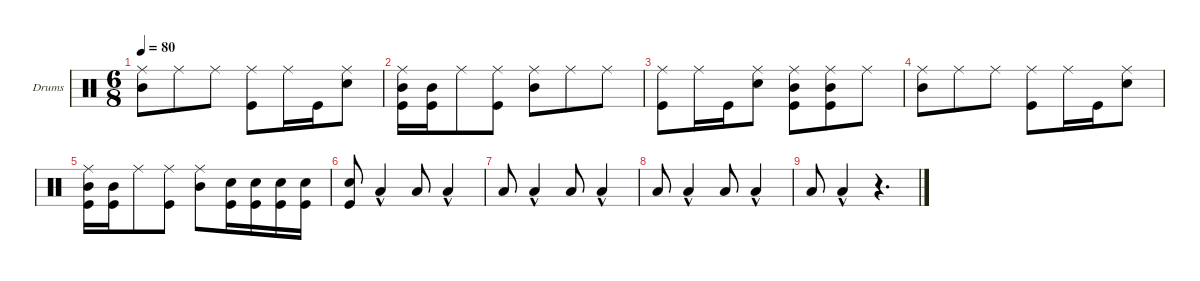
\defaultSystemsLayout 4
\hideDynamics
\bracketExtendMode groupsimilarinstruments
\firstSystemTrackNameOrientation horizontal
\otherSystemsTrackNameOrientation horizontal
\track ("Drumkit" "Drums") {instrument percussion}
\staff {score}
\articulation defaults
\ts (6 8)
\tempo 80
\clef neutral
\ks c
("Ride (middle)" "Mid Tom (hit)").8{dy mf} "Ride (middle)".8 "Ride (middle)".8 ("Ride (middle)" "Kick (hit)").8 "Ride (middle)".16 "Kick (hit)".16 ("Ride (middle)" "Snare (hit) 2").8 |
("Ride (middle)" "Mid Tom (hit)" "Kick (hit)").16 ("Mid Tom (hit)" "Kick (hit)").16 "Ride (middle)".8 ("Ride (middle)" "Kick (hit)").8 ("Ride (middle)" "Mid Tom (hit)").8 "Ride (middle)".8 "Ride (middle)".8 |
("Ride (middle)" "Kick (hit)").8 "Ride (middle)".16 "Kick (hit)".16 ("Ride (middle)" "Snare (hit) 2").8 ("Ride (middle)" "Mid Tom (hit)" "Kick (hit)").8 ("Ride (middle)" "Kick (hit)" "Mid Tom (hit)").8 "Ride (middle)".8 |
("Ride (middle)" "Mid Tom (hit)").8 "Ride (middle)".8 "Ride (middle)".8 ("Ride (middle)" "Kick (hit)").8 "Ride (middle)".16 "Kick (hit)".16 ("Ride (middle)" "Snare (hit) 2").8 |
("Ride (middle)" "Mid Tom (hit)" "Kick (hit)").16 ("Mid Tom (hit)" "Kick (hit)").16 "Ride (middle)".8 ("Ride (middle)" "Kick (hit)").8 ("Ride (middle)" "Mid Tom (hit)").8 ("Snare (hit) 2" "Kick (hit)").16 ("Snare (hit) 2" "Kick (hit)").16 ("Snare (hit) 2" "Kick (hit)").16 ("Snare (hit) 2" "Kick (hit)").16 |
("Snare (hit) 2" "Kick (hit)").8 "Low Tom (hit)"{hac}.4{dy mp} "Low Tom (hit)".8 "Low Tom (hit)"{hac}.4 |
"Low Tom (hit)".8 "Low Tom (hit)"{hac}.4 "Low Tom (hit)".8 "Low Tom (hit)"{hac}.4 |
"Low Tom (hit)".8 "Low Tom (hit)"{hac}.4 "Low Tom (hit)".8 "Low Tom (hit)"{hac}.4 |
"Low Tom (hit)".8 "Low Tom (hit)"{hac}.4 r.4{d}
